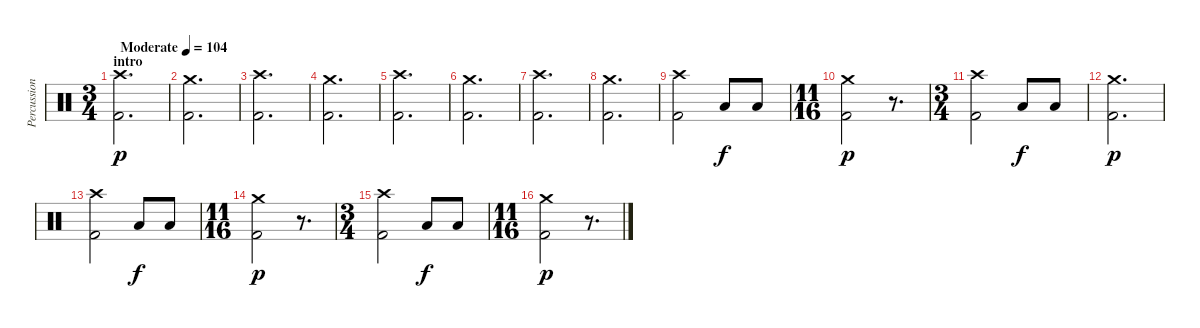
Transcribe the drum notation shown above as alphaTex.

\track ("Percussion" "Percussion") {instrument percussion}
\staff {score}
\articulation defaults
\ts (3 4)
\section ("" "intro")
\tempo (104 "Moderate")
\clef neutral
\ks c
("Crash high (hit)" "Kick (hit) 2").2{d dy p} |
("Crash medium (hit)" "Kick (hit) 2").2{d} |
("Crash high (hit)" "Kick (hit) 2").2{d} |
("Crash medium (hit)" "Kick (hit) 2").2{d} |
("Crash high (hit)" "Kick (hit) 2").2{d} |
("Crash medium (hit)" "Kick (hit) 2").2{d} |
("Crash high (hit)" "Kick (hit) 2").2{d} |
("Crash medium (hit)" "Kick (hit) 2").2{d} |
("Crash high (hit)" "Kick (hit) 2").2 "Low Tom (hit)".8{dy f} "Low Tom (hit)".8 |
\ts (11 16)
("Crash medium (hit)" "Kick (hit) 2").2{dy p} r.8{d} |
\ts (3 4)
("Crash high (hit)" "Kick (hit) 2").2 "Low Tom (hit)".8{dy f} "Low Tom (hit)".8 |
("Crash medium (hit)" "Kick (hit) 2").2{d dy p} |
("Crash high (hit)" "Kick (hit) 2").2 "Low Tom (hit)".8{dy f} "Low Tom (hit)".8 |
\ts (11 16)
("Crash medium (hit)" "Kick (hit) 2").2{dy p} r.8{d} |
\ts (3 4)
("Crash high (hit)" "Kick (hit) 2").2 "Low Tom (hit)".8{dy f} "Low Tom (hit)".8 |
\ts (11 16)
("Crash medium (hit)" "Kick (hit) 2").2{dy p} r.8{d}
